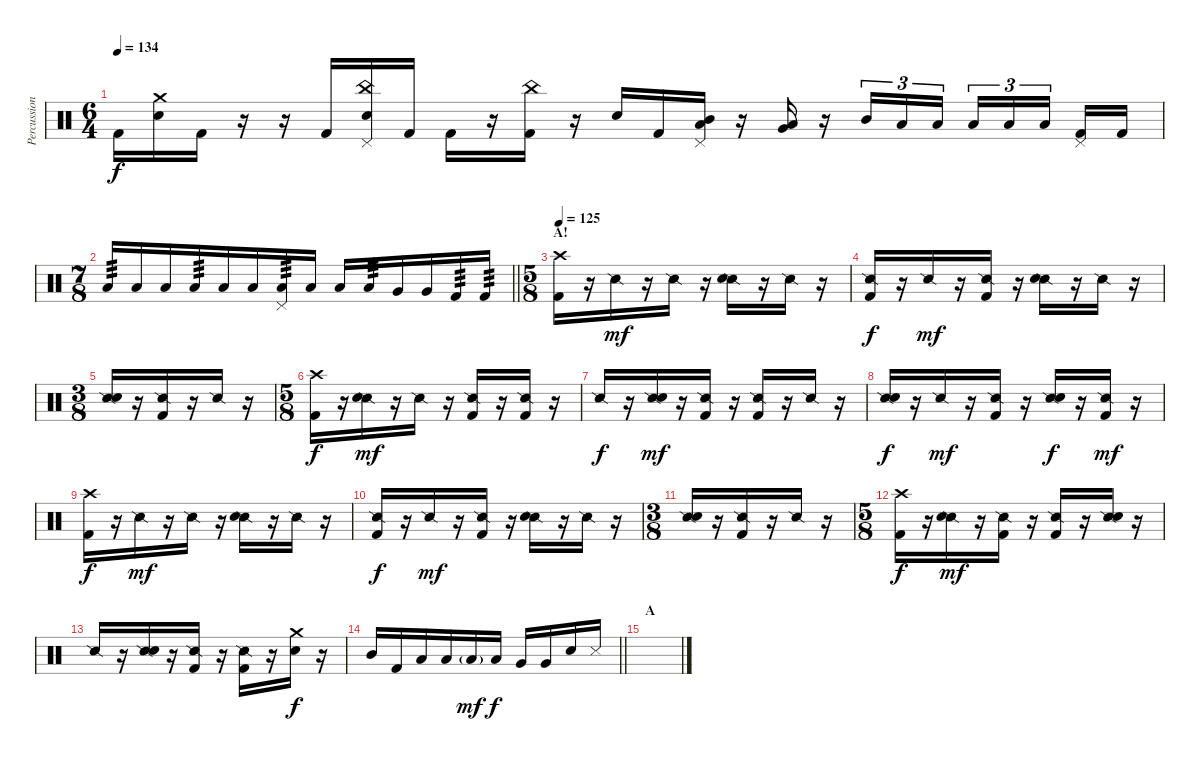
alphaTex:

\track ("Percussion" "Percussion") {instrument percussion}
\staff {score}
\articulation defaults
\ts (6 4)
\tempo 134
\clef neutral
\ks c "Kick (hit) 2".16{dy f}
("Crash medium (hit)" "Snare (hit) 2").16 "Kick (hit) 2".16 r.16 r.16 "Kick (hit) 2".16 ("China (hit)" "Pedal Hi-Hat (hit)" "Snare (hit) 2").16 "Kick (hit) 2".16 "Kick (hit) 2".16 r.16 ("China (hit)" "Kick (hit) 2").16 r.16 "Snare (hit) 2".16 "Kick (hit) 2".16 ("Pedal Hi-Hat (hit)" "Mid Tom (hit)" "Low Tom (hit)").16 r.16 ("Low Tom (hit)" "Very Low Tom (hit)").16 r.16 "Mid Tom (hit)".16{tu (3 2)} "Low Tom (hit)".16{tu (3 2)} "Low Floor Tom (hit)".16{tu (3 2) beam splitsecondary} "Low Floor Tom (hit)".16{tu (3 2)} "Low Floor Tom (hit)".16{tu (3 2)} "Low Floor Tom (hit)".16{tu (3 2) beam splitsecondary} ("Pedal Hi-Hat (hit)" "Kick (hit) 2").16 "Kick (hit) 2".16 |
\ts (7 8)
\barLineRight lightlight "Low Tom (hit)".16{tp 3} "Low Tom (hit)".16 "Low Tom (hit)".16 "Low Tom (hit)".16{tp 3} "Low Tom (hit)".16 "Low Tom (hit)".16
("Pedal Hi-Hat (hit)" "Low Tom (hit)").16{tp 3} "Low Tom (hit)".16 "Low Tom (hit)".16 "Low Tom (hit)".16{tp 3} "Very Low Tom (hit)".16 "Very Low Tom (hit)".16 "Kick (hit) 2".16{tp 3} "Kick (hit) 2".16{tp 3} |
\ts (5 8)
\section ("" "A!")
\tempo 125
("Crash high (hit)" "Kick (hit) 2").16 r.16 "Snare (side stick) 2".16{dy mf} r.16 "Snare (side stick) 2".16 r.16 ("Snare (side stick) 2" "Snare (hit) 2").16 r.16 "Snare (side stick) 2".16 r.16 |
("Snare (side stick) 2" "Kick (hit) 2").16{dy f} r.16 "Snare (side stick) 2".16{dy mf} r.16 ("Snare (side stick) 2" "Kick (hit) 2").16 r.16 ("Snare (side stick) 2" "Snare (hit) 2").16 r.16 "Snare (side stick) 2".16 r.16 |
\ts (3 8)
("Snare (side stick) 2" "Snare (hit) 2").16 r.16 ("Snare (side stick) 2" "Kick (hit) 2").16 r.16 "Snare (side stick) 2".16 r.16 |
\ts (5 8)
("Crash high (hit)" "Kick (hit) 2").16{dy f} r.16 ("Snare (side stick) 2" "Snare (hit) 2").16{dy mf} r.16 "Snare (side stick) 2".16 r.16 ("Snare (side stick) 2" "Kick (hit) 2").16 r.16 ("Snare (side stick) 2" "Kick (hit) 2").16 r.16 |
"Snare (side stick) 2".16{dy f} r.16 ("Snare (side stick) 2" "Snare (hit) 2").16{dy mf} r.16 ("Snare (side stick) 2" "Kick (hit) 2").16 r.16 ("Snare (side stick) 2" "Kick (hit) 2").16 r.16 "Snare (side stick) 2".16 r.16 |
("Snare (side stick) 2" "Snare (hit) 2").16{dy f} r.16 "Snare (side stick) 2".16{dy mf} r.16 ("Snare (side stick) 2" "Kick (hit) 2").16 r.16 ("Snare (side stick) 2" "Snare (hit) 2").16{dy f} r.16 ("Snare (side stick) 2" "Kick (hit) 2").16{dy mf} r.16 |
("Crash high (hit)" "Kick (hit) 2").16{dy f} r.16 "Snare (side stick) 2".16{dy mf} r.16 "Snare (side stick) 2".16 r.16 ("Snare (side stick) 2" "Snare (hit) 2").16 r.16 "Snare (side stick) 2".16 r.16 |
("Snare (side stick) 2" "Kick (hit) 2").16{dy f} r.16 "Snare (side stick) 2".16{dy mf} r.16 ("Snare (side stick) 2" "Kick (hit) 2").16 r.16 ("Snare (side stick) 2" "Snare (hit) 2").16 r.16 "Snare (side stick) 2".16 r.16 |
\ts (3 8)
("Snare (side stick) 2" "Snare (hit) 2").16 r.16 ("Snare (side stick) 2" "Kick (hit) 2").16 r.16 "Snare (side stick) 2".16 r.16 |
\ts (5 8)
("Crash high (hit)" "Kick (hit) 2").16{dy f} r.16 ("Snare (side stick) 2" "Snare (hit) 2").16{dy mf} r.16 ("Snare (side stick) 2" "Kick (hit) 2").16 r.16 ("Snare (side stick) 2" "Kick (hit) 2").16 r.16 ("Snare (side stick) 2" "Snare (hit) 2").16 r.16 |
"Snare (side stick) 2".16 r.16 ("Snare (side stick) 2" "Snare (hit) 2").16 r.16 ("Snare (side stick) 2" "Kick (hit) 2").16 r.16 ("Snare (side stick) 2" "Kick (hit) 2").16 r.16 ("Crash medium (hit)" "Snare (hit) 2").16{dy f} r.16 |
\barLineRight lightlight "Mid Tom (hit)".16 "Kick (hit) 2".16 "Low Tom (hit)".16 "Low Tom (hit)".16 "Low Tom (hit)"{g}.16{dy mf} "Low Tom (hit)".16{dy f} "Very Low Tom (hit)".16 "Very Low Tom (hit)".16 "Snare (hit) 2".16 "Metronome (hit)".16
|
\section ("" "A")
